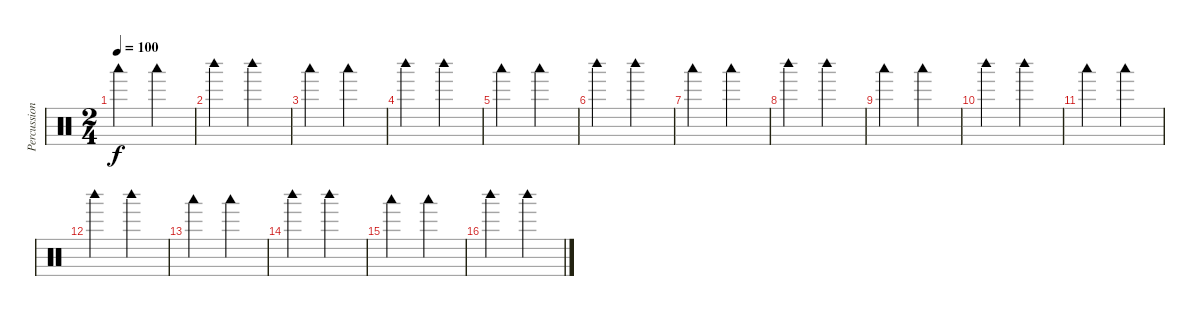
\track ("Percussion" "Percussion") {instrument percussion}
\staff {score}
\articulation defaults
\ts (2 4)
\tempo 100
\clef neutral
\ks c "Woodblock low (hit)".4{dy f} "Woodblock low (hit)".4
|
"Woodblock high (hit)".4 "Woodblock high (hit)".4 |
"Woodblock low (hit)".4 "Woodblock low (hit)".4 |
"Woodblock high (hit)".4 "Woodblock high (hit)".4 |
"Woodblock low (hit)".4 "Woodblock low (hit)".4 |
"Woodblock high (hit)".4 "Woodblock high (hit)".4 |
"Woodblock low (hit)".4 "Woodblock low (hit)".4 |
"Woodblock high (hit)".4 "Woodblock high (hit)".4 |
"Woodblock low (hit)".4 "Woodblock low (hit)".4 |
"Woodblock high (hit)".4 "Woodblock high (hit)".4 |
"Woodblock low (hit)".4 "Woodblock low (hit)".4 |
"Woodblock high (hit)".4 "Woodblock high (hit)".4 |
"Woodblock low (hit)".4 "Woodblock low (hit)".4 |
"Woodblock high (hit)".4 "Woodblock high (hit)".4 |
"Woodblock low (hit)".4 "Woodblock low (hit)".4 |
"Woodblock high (hit)".4 "Woodblock high (hit)".4
